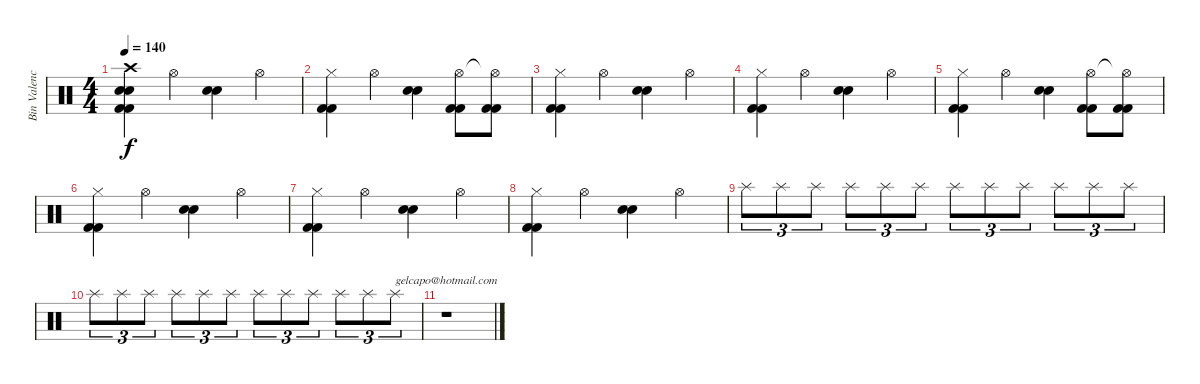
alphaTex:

\track ("Bin Valencia (Bateria)" "Bin Valenc") {instrument percussion}
\staff {score}
\articulation defaults
\chord ("gelcapo@hotmail.com") {firstfret 0}
\ts (4 4)
\tempo 140
\clef neutral
\ks c
("Crash high (hit)" "Snare (hit) 2" "Snare (hit) 2" "Kick (hit) 2" "Kick (hit) 2").4{dy f} "Hi-Hat (open)".4 ("Snare (hit) 2" "Snare (hit) 2").4 "Hi-Hat (open)".4 |
("Hi-Hat (closed)" "Kick (hit) 2" "Kick (hit) 2").4 "Hi-Hat (open)".4 ("Snare (hit) 2" "Snare (hit) 2").4 ("Hi-Hat (open)" "Kick (hit) 2" "Kick (hit) 2").8 ("Hi-Hat (open)"{t} "Kick (hit) 2" "Kick (hit) 2").8 |
("Hi-Hat (closed)" "Kick (hit) 2" "Kick (hit) 2").4 "Hi-Hat (open)".4 ("Snare (hit) 2" "Snare (hit) 2").4 "Hi-Hat (open)".4 |
("Hi-Hat (closed)" "Kick (hit) 2" "Kick (hit) 2").4 "Hi-Hat (open)".4 ("Snare (hit) 2" "Snare (hit) 2").4 "Hi-Hat (open)".4 |
("Hi-Hat (closed)" "Kick (hit) 2" "Kick (hit) 2").4 "Hi-Hat (open)".4 ("Snare (hit) 2" "Snare (hit) 2").4 ("Hi-Hat (open)" "Kick (hit) 2" "Kick (hit) 2").8 ("Hi-Hat (open)"{t} "Kick (hit) 2" "Kick (hit) 2").8 |
("Hi-Hat (closed)" "Kick (hit) 2" "Kick (hit) 2").4 "Hi-Hat (open)".4 ("Snare (hit) 2" "Snare (hit) 2").4 "Hi-Hat (open)".4 |
("Hi-Hat (closed)" "Kick (hit) 2" "Kick (hit) 2").4 "Hi-Hat (open)".4 ("Snare (hit) 2" "Snare (hit) 2").4 "Hi-Hat (open)".4 |
("Hi-Hat (closed)" "Kick (hit) 2" "Kick (hit) 2").4 "Hi-Hat (open)".4 ("Snare (hit) 2" "Snare (hit) 2").4 "Hi-Hat (open)".4 |
"Splash (hit)".8{tu (3 2) volume 0} "Splash (hit)".8{tu (3 2)} "Splash (hit)".8{tu (3 2)} "Splash (hit)".8{tu (3 2)} "Splash (hit)".8{tu (3 2)} "Splash (hit)".8{tu (3 2)} "Splash (hit)".8{tu (3 2)} "Splash (hit)".8{tu (3 2)} "Splash (hit)".8{tu (3 2)} "Splash (hit)".8{tu (3 2)} "Splash (hit)".8{tu (3 2)} "Splash (hit)".8{tu (3 2)} |
"Splash (hit)".8{tu (3 2)} "Splash (hit)".8{tu (3 2)} "Splash (hit)".8{tu (3 2)} "Splash (hit)".8{tu (3 2)} "Splash (hit)".8{tu (3 2)} "Splash (hit)".8{tu (3 2)} "Splash (hit)".8{tu (3 2)} "Splash (hit)".8{tu (3 2)} "Splash (hit)".8{tu (3 2)} "Splash (hit)".8{tu (3 2)} "Splash (hit)".8{tu (3 2)} "Splash (hit)".8{tu (3 2)} |
r.1{ch "gelcapo@hotmail.com"}
